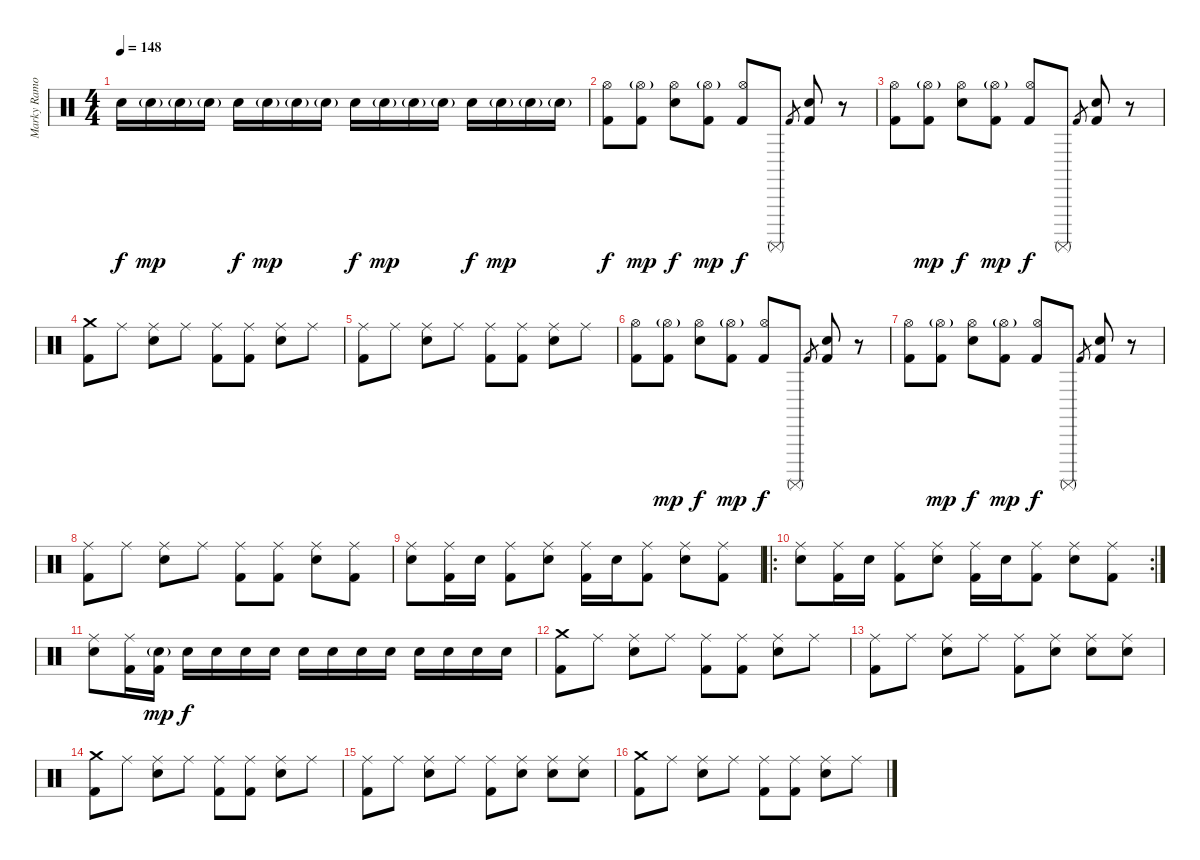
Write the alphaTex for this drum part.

\track ("Marky Ramone" "Marky Ramo") {instrument percussion}
\staff {score}
\articulation defaults
\ts (4 4)
\tempo 148
\clef neutral
\ks c "Electric Snare (hit)".16{dy f} "Electric Snare (hit)"{g}.16{dy mp} "Electric Snare (hit)"{g}.16 "Electric Snare (hit)"{g}.16 "Electric Snare (hit)".16{dy f} "Electric Snare (hit)"{g}.16{dy mp} "Electric Snare (hit)"{g}.16 "Electric Snare (hit)"{g}.16 "Electric Snare (hit)".16{dy f} "Electric Snare (hit)"{g}.16{dy mp} "Electric Snare (hit)"{g}.16 "Electric Snare (hit)"{g}.16 "Electric Snare (hit)".16{dy f} "Electric Snare (hit)"{g}.16{dy mp} "Electric Snare (hit)"{g}.16 "Electric Snare (hit)"{g}.16
|
("Hi-Hat (open)" "Kick (hit) 2").8{dy f} ("Hi-Hat (open)"{g} "Kick (hit) 2").8{dy mp} ("Hi-Hat (open)" "Electric Snare (hit)").8{dy f} ("Hi-Hat (open)"{g} "Kick (hit) 2").8{dy mp} ("Hi-Hat (open)" "Kick (hit) 2").8{dy f} "Surdo (mute)".8 "Kick (hit) 2".8{gr} ("Electric Snare (hit)" "Kick (hit) 2").8{bd 480} r.8 |
("Hi-Hat (open)" "Kick (hit) 2").8 ("Hi-Hat (open)"{g} "Kick (hit) 2").8{dy mp} ("Hi-Hat (open)" "Electric Snare (hit)").8{dy f} ("Hi-Hat (open)"{g} "Kick (hit) 2").8{dy mp} ("Hi-Hat (open)" "Kick (hit) 2").8{dy f} "Surdo (mute)".8 "Kick (hit) 2".8{gr} ("Electric Snare (hit)" "Kick (hit) 2").8{bd 480} r.8 |
("Crash medium (hit)" "Kick (hit) 2").8 "Ride (middle)".8 ("Ride (middle)" "Electric Snare (hit)").8 "Ride (middle)".8 ("Ride (middle)" "Kick (hit) 2").8 ("Ride (middle)" "Kick (hit) 2").8 ("Ride (middle)" "Electric Snare (hit)").8 "Ride (middle)".8 |
("Ride (middle)" "Kick (hit) 2").8 "Ride (middle)".8 ("Ride (middle)" "Electric Snare (hit)").8 "Ride (middle)".8 ("Ride (middle)" "Kick (hit) 2").8 ("Ride (middle)" "Kick (hit) 2").8 ("Ride (middle)" "Electric Snare (hit)").8 "Ride (middle)".8 |
("Hi-Hat (open)" "Kick (hit) 2").8 ("Hi-Hat (open)"{g} "Kick (hit) 2").8{dy mp} ("Hi-Hat (open)" "Electric Snare (hit)").8{dy f} ("Hi-Hat (open)"{g} "Kick (hit) 2").8{dy mp} ("Hi-Hat (open)" "Kick (hit) 2").8{dy f} "Surdo (mute)".8 "Kick (hit) 2".8{gr} ("Electric Snare (hit)" "Kick (hit) 2").8{bd 480} r.8 |
("Hi-Hat (open)" "Kick (hit) 2").8 ("Hi-Hat (open)"{g} "Kick (hit) 2").8{dy mp} ("Hi-Hat (open)" "Electric Snare (hit)").8{dy f} ("Hi-Hat (open)"{g} "Kick (hit) 2").8{dy mp} ("Hi-Hat (open)" "Kick (hit) 2").8{dy f} "Surdo (mute)".8 "Kick (hit) 2".8{gr} ("Electric Snare (hit)" "Kick (hit) 2").8{bd 480} r.8 |
("Ride (middle)" "Kick (hit) 2").8 "Ride (middle)".8 ("Ride (middle)" "Electric Snare (hit)").8 "Ride (middle)".8 ("Ride (middle)" "Kick (hit) 2").8 ("Ride (middle)" "Kick (hit) 2").8 ("Ride (middle)" "Electric Snare (hit)").8 ("Ride (middle)" "Kick (hit) 2").8 |
("Electric Snare (hit)" "Ride (middle)").8 ("Kick (hit) 2" "Ride (middle)").16 "Electric Snare (hit)".16 ("Kick (hit) 2" "Ride (middle)").8 ("Electric Snare (hit)" "Ride (middle)").8 ("Kick (hit) 2" "Ride (middle)").16 "Electric Snare (hit)".16 ("Kick (hit) 2" "Ride (middle)").8 ("Electric Snare (hit)" "Ride (middle)").8 ("Kick (hit) 2" "Ride (middle)").8 |
\ro
\rc 2
("Electric Snare (hit)" "Ride (middle)").8 ("Kick (hit) 2" "Ride (middle)").16 "Electric Snare (hit)".16 ("Kick (hit) 2" "Ride (middle)").8 ("Electric Snare (hit)" "Ride (middle)").8 ("Kick (hit) 2" "Ride (middle)").16 "Electric Snare (hit)".16 ("Kick (hit) 2" "Ride (middle)").8 ("Electric Snare (hit)" "Ride (middle)").8 ("Kick (hit) 2" "Ride (middle)").8 |
("Electric Snare (hit)" "Ride (middle)").8 ("Kick (hit) 2" "Ride (middle)").16 ("Electric Snare (hit)"{g} "Kick (hit) 2").16{dy mp} "Electric Snare (hit)".16{dy f} "Electric Snare (hit)".16 "Electric Snare (hit)".16 "Electric Snare (hit)".16 "Electric Snare (hit)".16 "Electric Snare (hit)".16 "Electric Snare (hit)".16 "Electric Snare (hit)".16 "Electric Snare (hit)".16 "Electric Snare (hit)".16 "Electric Snare (hit)".16 "Electric Snare (hit)".16 |
("Crash medium (hit)" "Kick (hit) 2").8 "Ride (middle)".8 ("Ride (middle)" "Electric Snare (hit)").8 "Ride (middle)".8 ("Ride (middle)" "Kick (hit) 2").8 ("Ride (middle)" "Kick (hit) 2").8 ("Ride (middle)" "Electric Snare (hit)").8 "Ride (middle)".8 |
("Ride (middle)" "Kick (hit) 2").8 "Ride (middle)".8 ("Ride (middle)" "Electric Snare (hit)").8 "Ride (middle)".8 ("Ride (middle)" "Kick (hit) 2").8 ("Ride (middle)" "Electric Snare (hit)").8 ("Ride (middle)" "Electric Snare (hit)").8 ("Ride (middle)" "Electric Snare (hit)").8 |
("Crash medium (hit)" "Kick (hit) 2").8 "Ride (middle)".8 ("Ride (middle)" "Electric Snare (hit)").8 "Ride (middle)".8 ("Ride (middle)" "Kick (hit) 2").8 ("Ride (middle)" "Kick (hit) 2").8 ("Ride (middle)" "Electric Snare (hit)").8 "Ride (middle)".8 |
("Ride (middle)" "Kick (hit) 2").8 "Ride (middle)".8 ("Ride (middle)" "Electric Snare (hit)").8 "Ride (middle)".8 ("Ride (middle)" "Kick (hit) 2").8 ("Ride (middle)" "Electric Snare (hit)").8 ("Ride (middle)" "Electric Snare (hit)").8 ("Ride (middle)" "Electric Snare (hit)").8 |
("Crash medium (hit)" "Kick (hit) 2").8 "Ride (middle)".8 ("Ride (middle)" "Electric Snare (hit)").8 "Ride (middle)".8 ("Ride (middle)" "Kick (hit) 2").8 ("Ride (middle)" "Kick (hit) 2").8 ("Ride (middle)" "Electric Snare (hit)").8 "Ride (middle)".8
